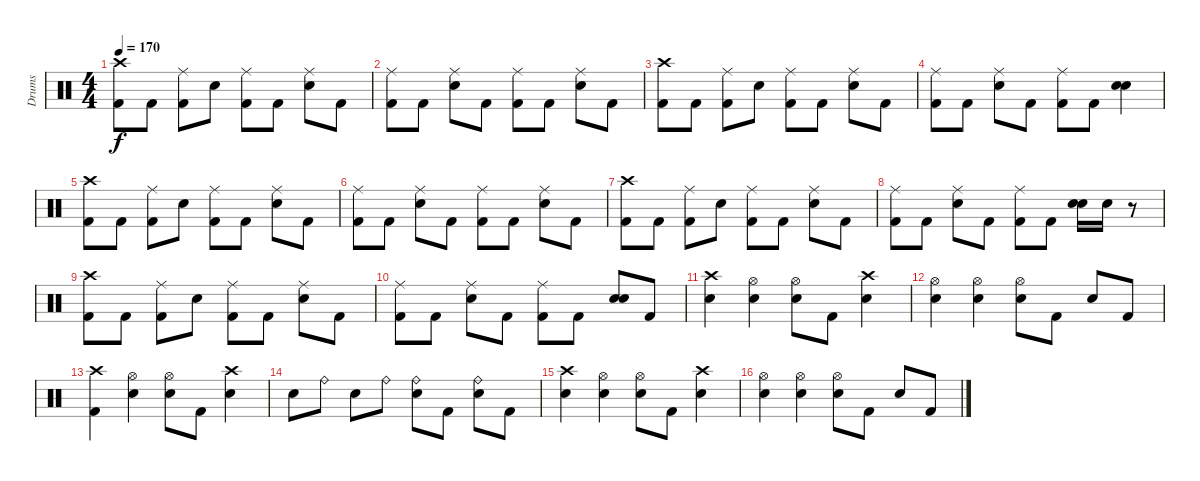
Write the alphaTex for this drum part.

\track ("Drums" "Drums") {instrument percussion}
\staff {score}
\articulation defaults
\ts (4 4)
\tempo 170
\clef neutral
\ks c
("Crash high (hit)" "Kick (hit) 2").8{dy f} "Kick (hit) 2".8 ("Ride (middle)" "Kick (hit) 2").8 "Snare (hit) 2".8 ("Ride (middle)" "Kick (hit) 2").8 "Kick (hit) 2".8 ("Ride (middle)" "Snare (hit) 2").8 "Kick (hit) 2".8 |
("Ride (middle)" "Kick (hit) 2").8 "Kick (hit) 2".8 ("Ride (middle)" "Snare (hit) 2").8 "Kick (hit) 2".8 ("Ride (middle)" "Kick (hit) 2").8 "Kick (hit) 2".8 ("Ride (middle)" "Snare (hit) 2").8 "Kick (hit) 2".8 |
("Crash high (hit)" "Kick (hit) 2").8 "Kick (hit) 2".8 ("Ride (middle)" "Kick (hit) 2").8 "Snare (hit) 2".8 ("Ride (middle)" "Kick (hit) 2").8 "Kick (hit) 2".8 ("Ride (middle)" "Snare (hit) 2").8 "Kick (hit) 2".8 |
("Ride (middle)" "Kick (hit) 2").8 "Kick (hit) 2".8 ("Ride (middle)" "Snare (hit) 2").8 "Kick (hit) 2".8 ("Ride (middle)" "Kick (hit) 2").8 "Kick (hit) 2".8 ("Snare (hit) 2" "Snare (hit) 2").4 |
("Crash high (hit)" "Kick (hit) 2").8 "Kick (hit) 2".8 ("Ride (middle)" "Kick (hit) 2").8 "Snare (hit) 2".8 ("Ride (middle)" "Kick (hit) 2").8 "Kick (hit) 2".8 ("Ride (middle)" "Snare (hit) 2").8 "Kick (hit) 2".8 |
("Ride (middle)" "Kick (hit) 2").8 "Kick (hit) 2".8 ("Ride (middle)" "Snare (hit) 2").8 "Kick (hit) 2".8 ("Ride (middle)" "Kick (hit) 2").8 "Kick (hit) 2".8 ("Ride (middle)" "Snare (hit) 2").8 "Kick (hit) 2".8 |
("Crash high (hit)" "Kick (hit) 2").8 "Kick (hit) 2".8 ("Ride (middle)" "Kick (hit) 2").8 "Snare (hit) 2".8 ("Ride (middle)" "Kick (hit) 2").8 "Kick (hit) 2".8 ("Ride (middle)" "Snare (hit) 2").8 "Kick (hit) 2".8 |
("Ride (middle)" "Kick (hit) 2").8 "Kick (hit) 2".8 ("Ride (middle)" "Snare (hit) 2").8 "Kick (hit) 2".8 ("Ride (middle)" "Kick (hit) 2").8 "Kick (hit) 2".8 ("Snare (hit) 2" "Snare (hit) 2").16 "Snare (hit) 2".16 r.8 |
("Crash high (hit)" "Kick (hit) 2").8 "Kick (hit) 2".8 ("Ride (middle)" "Kick (hit) 2").8 "Snare (hit) 2".8 ("Ride (middle)" "Kick (hit) 2").8 "Kick (hit) 2".8 ("Ride (middle)" "Snare (hit) 2").8 "Kick (hit) 2".8 |
("Ride (middle)" "Kick (hit) 2").8 "Kick (hit) 2".8 ("Ride (middle)" "Snare (hit) 2").8 "Kick (hit) 2".8 ("Ride (middle)" "Kick (hit) 2").8 "Kick (hit) 2".8 ("Snare (hit) 2" "Snare (hit) 2").8 "Kick (hit) 2".8 |
("Crash high (hit)" "Snare (hit) 2").4 ("Hi-Hat (open)" "Snare (hit) 2").4 ("Hi-Hat (open)" "Snare (hit) 2").8 "Kick (hit) 2".8 ("Crash high (hit)" "Snare (hit) 2").4 |
("Hi-Hat (open)" "Snare (hit) 2").4 ("Hi-Hat (open)" "Snare (hit) 2").4 ("Hi-Hat (open)" "Snare (hit) 2").8 "Kick (hit) 2".8 "Snare (hit) 2".8 "Kick (hit) 2".8 |
("Crash high (hit)" "Kick (hit) 2").4 ("Hi-Hat (open)" "Snare (hit) 2").4 ("Hi-Hat (open)" "Snare (hit) 2").8 "Kick (hit) 2".8 ("Crash high (hit)" "Snare (hit) 2").4 |
"Snare (hit) 2".8 "Ride (bell)".8 "Snare (hit) 2".8 "Ride (bell)".8 ("Ride (bell)" "Snare (hit) 2").8 "Kick (hit) 2".8 ("Ride (bell)" "Snare (hit) 2").8 "Kick (hit) 2".8 |
("Crash high (hit)" "Snare (hit) 2").4 ("Hi-Hat (open)" "Snare (hit) 2").4 ("Hi-Hat (open)" "Snare (hit) 2").8 "Kick (hit) 2".8 ("Crash high (hit)" "Snare (hit) 2").4 |
("Hi-Hat (open)" "Snare (hit) 2").4 ("Hi-Hat (open)" "Snare (hit) 2").4 ("Hi-Hat (open)" "Snare (hit) 2").8 "Kick (hit) 2".8 "Snare (hit) 2".8 "Kick (hit) 2".8
